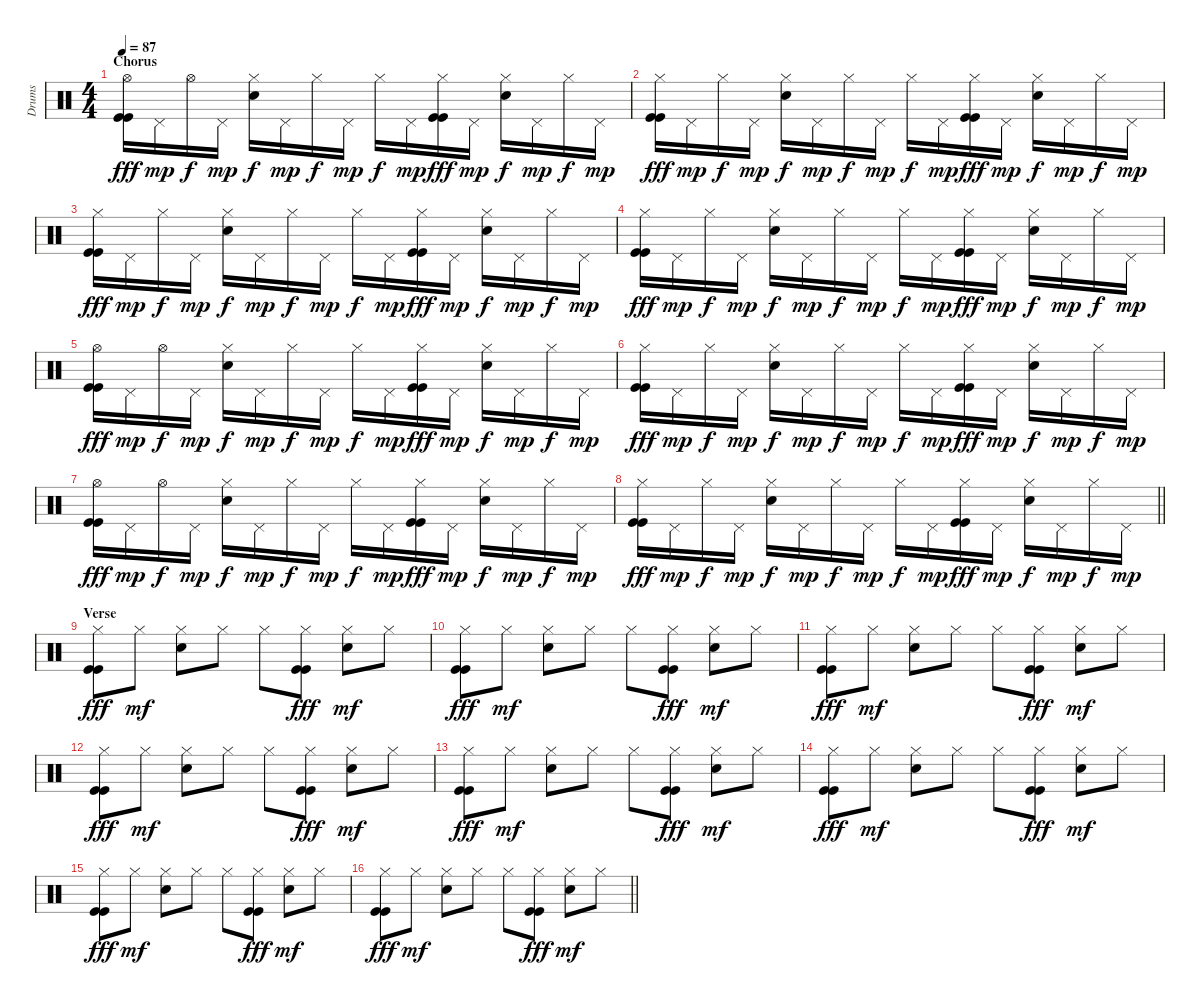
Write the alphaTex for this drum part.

\track ("Drums" "Drums") {instrument percussion}
\staff {score}
\articulation defaults
\ts (4 4)
\section ("" "Chorus")
\tempo 87
\clef neutral
\ks c
("Hi-Hat (open)" "Kick (hit)" "Kick (hit)").16{dy fff} "Pedal Hi-Hat (hit)".16{dy mp} "Hi-Hat (open)".16{dy f} "Pedal Hi-Hat (hit)".16{dy mp} ("Hi-Hat (closed)" "Electric Snare (hit)").16{dy f} "Pedal Hi-Hat (hit)".16{dy mp} "Hi-Hat (closed)".16{dy f} "Pedal Hi-Hat (hit)".16{dy mp} "Hi-Hat (closed)".16{dy f} "Pedal Hi-Hat (hit)".16{dy mp} ("Hi-Hat (closed)" "Kick (hit)" "Kick (hit)").16{dy fff} "Pedal Hi-Hat (hit)".16{dy mp} ("Hi-Hat (closed)" "Electric Snare (hit)").16{dy f} "Pedal Hi-Hat (hit)".16{dy mp} "Hi-Hat (closed)".16{dy f} "Pedal Hi-Hat (hit)".16{dy mp} |
("Hi-Hat (closed)" "Kick (hit)" "Kick (hit)").16{dy fff} "Pedal Hi-Hat (hit)".16{dy mp} "Hi-Hat (closed)".16{dy f} "Pedal Hi-Hat (hit)".16{dy mp} ("Hi-Hat (closed)" "Electric Snare (hit)").16{dy f} "Pedal Hi-Hat (hit)".16{dy mp} "Hi-Hat (closed)".16{dy f} "Pedal Hi-Hat (hit)".16{dy mp} "Hi-Hat (closed)".16{dy f} "Pedal Hi-Hat (hit)".16{dy mp} ("Hi-Hat (closed)" "Kick (hit)" "Kick (hit)").16{dy fff} "Pedal Hi-Hat (hit)".16{dy mp} ("Hi-Hat (closed)" "Electric Snare (hit)").16{dy f} "Pedal Hi-Hat (hit)".16{dy mp} "Hi-Hat (closed)".16{dy f} "Pedal Hi-Hat (hit)".16{dy mp} |
("Hi-Hat (closed)" "Kick (hit)" "Kick (hit)").16{dy fff} "Pedal Hi-Hat (hit)".16{dy mp} "Hi-Hat (closed)".16{dy f} "Pedal Hi-Hat (hit)".16{dy mp} ("Hi-Hat (closed)" "Electric Snare (hit)").16{dy f} "Pedal Hi-Hat (hit)".16{dy mp} "Hi-Hat (closed)".16{dy f} "Pedal Hi-Hat (hit)".16{dy mp} "Hi-Hat (closed)".16{dy f} "Pedal Hi-Hat (hit)".16{dy mp} ("Hi-Hat (closed)" "Kick (hit)" "Kick (hit)").16{dy fff} "Pedal Hi-Hat (hit)".16{dy mp} ("Hi-Hat (closed)" "Electric Snare (hit)").16{dy f} "Pedal Hi-Hat (hit)".16{dy mp} "Hi-Hat (closed)".16{dy f} "Pedal Hi-Hat (hit)".16{dy mp} |
("Hi-Hat (closed)" "Kick (hit)" "Kick (hit)").16{dy fff} "Pedal Hi-Hat (hit)".16{dy mp} "Hi-Hat (closed)".16{dy f} "Pedal Hi-Hat (hit)".16{dy mp} ("Hi-Hat (closed)" "Electric Snare (hit)").16{dy f} "Pedal Hi-Hat (hit)".16{dy mp} "Hi-Hat (closed)".16{dy f} "Pedal Hi-Hat (hit)".16{dy mp} "Hi-Hat (closed)".16{dy f} "Pedal Hi-Hat (hit)".16{dy mp} ("Hi-Hat (closed)" "Kick (hit)" "Kick (hit)").16{dy fff} "Pedal Hi-Hat (hit)".16{dy mp} ("Hi-Hat (closed)" "Electric Snare (hit)").16{dy f} "Pedal Hi-Hat (hit)".16{dy mp} "Hi-Hat (closed)".16{dy f} "Pedal Hi-Hat (hit)".16{dy mp} |
("Hi-Hat (open)" "Kick (hit)" "Kick (hit)").16{dy fff} "Pedal Hi-Hat (hit)".16{dy mp} "Hi-Hat (open)".16{dy f} "Pedal Hi-Hat (hit)".16{dy mp} ("Hi-Hat (closed)" "Electric Snare (hit)").16{dy f} "Pedal Hi-Hat (hit)".16{dy mp} "Hi-Hat (closed)".16{dy f} "Pedal Hi-Hat (hit)".16{dy mp} "Hi-Hat (closed)".16{dy f} "Pedal Hi-Hat (hit)".16{dy mp} ("Hi-Hat (closed)" "Kick (hit)" "Kick (hit)").16{dy fff} "Pedal Hi-Hat (hit)".16{dy mp} ("Hi-Hat (closed)" "Electric Snare (hit)").16{dy f} "Pedal Hi-Hat (hit)".16{dy mp} "Hi-Hat (closed)".16{dy f} "Pedal Hi-Hat (hit)".16{dy mp} |
("Hi-Hat (closed)" "Kick (hit)" "Kick (hit)").16{dy fff} "Pedal Hi-Hat (hit)".16{dy mp} "Hi-Hat (closed)".16{dy f} "Pedal Hi-Hat (hit)".16{dy mp} ("Hi-Hat (closed)" "Electric Snare (hit)").16{dy f} "Pedal Hi-Hat (hit)".16{dy mp} "Hi-Hat (closed)".16{dy f} "Pedal Hi-Hat (hit)".16{dy mp} "Hi-Hat (closed)".16{dy f} "Pedal Hi-Hat (hit)".16{dy mp} ("Hi-Hat (closed)" "Kick (hit)" "Kick (hit)").16{dy fff} "Pedal Hi-Hat (hit)".16{dy mp} ("Hi-Hat (closed)" "Electric Snare (hit)").16{dy f} "Pedal Hi-Hat (hit)".16{dy mp} "Hi-Hat (closed)".16{dy f} "Pedal Hi-Hat (hit)".16{dy mp} |
("Hi-Hat (open)" "Kick (hit)" "Kick (hit)").16{dy fff} "Pedal Hi-Hat (hit)".16{dy mp} "Hi-Hat (open)".16{dy f} "Pedal Hi-Hat (hit)".16{dy mp} ("Hi-Hat (closed)" "Electric Snare (hit)").16{dy f} "Pedal Hi-Hat (hit)".16{dy mp} "Hi-Hat (closed)".16{dy f} "Pedal Hi-Hat (hit)".16{dy mp} "Hi-Hat (closed)".16{dy f} "Pedal Hi-Hat (hit)".16{dy mp} ("Hi-Hat (closed)" "Kick (hit)" "Kick (hit)").16{dy fff} "Pedal Hi-Hat (hit)".16{dy mp} ("Hi-Hat (closed)" "Electric Snare (hit)").16{dy f} "Pedal Hi-Hat (hit)".16{dy mp} "Hi-Hat (closed)".16{dy f} "Pedal Hi-Hat (hit)".16{dy mp} |
\barLineRight lightlight
("Hi-Hat (closed)" "Kick (hit)" "Kick (hit)").16{dy fff} "Pedal Hi-Hat (hit)".16{dy mp} "Hi-Hat (closed)".16{dy f} "Pedal Hi-Hat (hit)".16{dy mp} ("Hi-Hat (closed)" "Electric Snare (hit)").16{dy f} "Pedal Hi-Hat (hit)".16{dy mp} "Hi-Hat (closed)".16{dy f} "Pedal Hi-Hat (hit)".16{dy mp} "Hi-Hat (closed)".16{dy f} "Pedal Hi-Hat (hit)".16{dy mp} ("Hi-Hat (closed)" "Kick (hit)" "Kick (hit)").16{dy fff} "Pedal Hi-Hat (hit)".16{dy mp} ("Hi-Hat (closed)" "Electric Snare (hit)").16{dy f} "Pedal Hi-Hat (hit)".16{dy mp} "Hi-Hat (closed)".16{dy f} "Pedal Hi-Hat (hit)".16{dy mp} |
\section ("" "Verse")
("Hi-Hat (closed)" "Kick (hit)" "Kick (hit)").8{dy fff} "Hi-Hat (closed)".8{dy mf} ("Hi-Hat (closed)" "Electric Snare (hit)").8 "Hi-Hat (closed)".8 "Hi-Hat (closed)".8 ("Hi-Hat (closed)" "Kick (hit)" "Kick (hit)").8{dy fff} ("Hi-Hat (closed)" "Electric Snare (hit)").8{dy mf} "Hi-Hat (closed)".8 |
("Hi-Hat (closed)" "Kick (hit)" "Kick (hit)").8{dy fff} "Hi-Hat (closed)".8{dy mf} ("Hi-Hat (closed)" "Electric Snare (hit)").8 "Hi-Hat (closed)".8 "Hi-Hat (closed)".8 ("Hi-Hat (closed)" "Kick (hit)" "Kick (hit)").8{dy fff} ("Hi-Hat (closed)" "Electric Snare (hit)").8{dy mf} "Hi-Hat (closed)".8 |
("Hi-Hat (closed)" "Kick (hit)" "Kick (hit)").8{dy fff} "Hi-Hat (closed)".8{dy mf} ("Hi-Hat (closed)" "Electric Snare (hit)").8 "Hi-Hat (closed)".8 "Hi-Hat (closed)".8 ("Hi-Hat (closed)" "Kick (hit)" "Kick (hit)").8{dy fff} ("Hi-Hat (closed)" "Electric Snare (hit)").8{dy mf} "Hi-Hat (closed)".8 |
("Hi-Hat (closed)" "Kick (hit)" "Kick (hit)").8{dy fff} "Hi-Hat (closed)".8{dy mf} ("Hi-Hat (closed)" "Electric Snare (hit)").8 "Hi-Hat (closed)".8 "Hi-Hat (closed)".8 ("Hi-Hat (closed)" "Kick (hit)" "Kick (hit)").8{dy fff} ("Hi-Hat (closed)" "Electric Snare (hit)").8{dy mf} "Hi-Hat (closed)".8 |
("Hi-Hat (closed)" "Kick (hit)" "Kick (hit)").8{dy fff} "Hi-Hat (closed)".8{dy mf} ("Hi-Hat (closed)" "Electric Snare (hit)").8 "Hi-Hat (closed)".8 "Hi-Hat (closed)".8 ("Hi-Hat (closed)" "Kick (hit)" "Kick (hit)").8{dy fff} ("Hi-Hat (closed)" "Electric Snare (hit)").8{dy mf} "Hi-Hat (closed)".8 |
("Hi-Hat (closed)" "Kick (hit)" "Kick (hit)").8{dy fff} "Hi-Hat (closed)".8{dy mf} ("Hi-Hat (closed)" "Electric Snare (hit)").8 "Hi-Hat (closed)".8 "Hi-Hat (closed)".8 ("Hi-Hat (closed)" "Kick (hit)" "Kick (hit)").8{dy fff} ("Hi-Hat (closed)" "Electric Snare (hit)").8{dy mf} "Hi-Hat (closed)".8 |
("Hi-Hat (closed)" "Kick (hit)" "Kick (hit)").8{dy fff} "Hi-Hat (closed)".8{dy mf} ("Hi-Hat (closed)" "Electric Snare (hit)").8 "Hi-Hat (closed)".8 "Hi-Hat (closed)".8 ("Hi-Hat (closed)" "Kick (hit)" "Kick (hit)").8{dy fff} ("Hi-Hat (closed)" "Electric Snare (hit)").8{dy mf} "Hi-Hat (closed)".8 |
\barLineRight lightlight
("Hi-Hat (closed)" "Kick (hit)" "Kick (hit)").8{dy fff} "Hi-Hat (closed)".8{dy mf} ("Hi-Hat (closed)" "Electric Snare (hit)").8 "Hi-Hat (closed)".8 "Hi-Hat (closed)".8 ("Hi-Hat (closed)" "Kick (hit)" "Kick (hit)").8{dy fff} ("Hi-Hat (closed)" "Electric Snare (hit)").8{dy mf} "Hi-Hat (closed)".8
